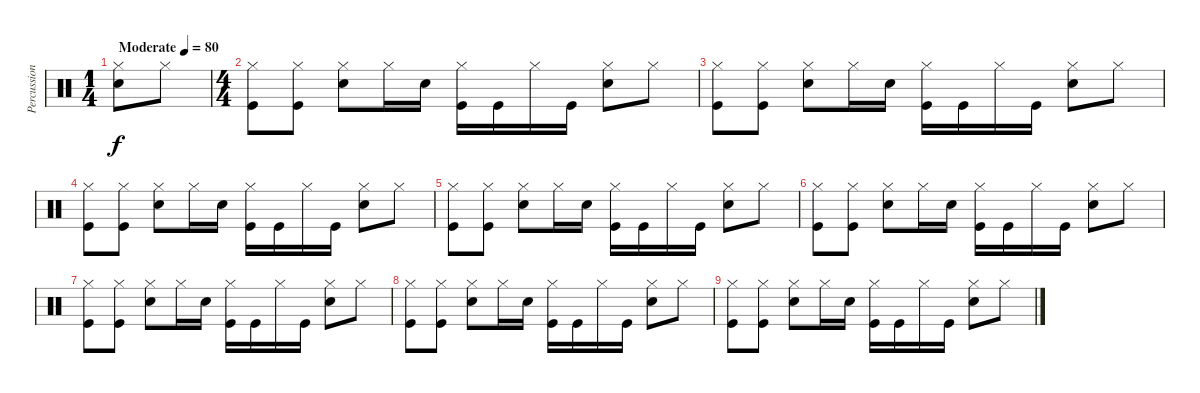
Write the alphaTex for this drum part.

\track ("Percussion" "Percussion") {instrument percussion}
\staff {score}
\articulation defaults
\ts (1 4)
\tempo (80 "Moderate")
\clef neutral
\ks c
("Snare (hit) 2" "Hi-Hat (closed)").8{dy f} "Hi-Hat (closed)".8 |
\ts (4 4)
("Hi-Hat (closed)" "Kick (hit)").8 ("Hi-Hat (closed)" "Kick (hit)").8 ("Snare (hit) 2" "Hi-Hat (closed)").8 "Hi-Hat (closed)".16 "Snare (hit) 2".16 ("Hi-Hat (closed)" "Kick (hit)").16 "Kick (hit)".16 "Hi-Hat (closed)".16 "Kick (hit)".16 ("Snare (hit) 2" "Hi-Hat (closed)").8 "Hi-Hat (closed)".8 |
("Hi-Hat (closed)" "Kick (hit)").8 ("Hi-Hat (closed)" "Kick (hit)").8 ("Snare (hit) 2" "Hi-Hat (closed)").8 "Hi-Hat (closed)".16 "Snare (hit) 2".16 ("Hi-Hat (closed)" "Kick (hit)").16 "Kick (hit)".16 "Hi-Hat (closed)".16 "Kick (hit)".16 ("Snare (hit) 2" "Hi-Hat (closed)").8 "Hi-Hat (closed)".8 |
("Hi-Hat (closed)" "Kick (hit)").8 ("Hi-Hat (closed)" "Kick (hit)").8 ("Snare (hit) 2" "Hi-Hat (closed)").8 "Hi-Hat (closed)".16 "Snare (hit) 2".16 ("Hi-Hat (closed)" "Kick (hit)").16 "Kick (hit)".16 "Hi-Hat (closed)".16 "Kick (hit)".16 ("Snare (hit) 2" "Hi-Hat (closed)").8 "Hi-Hat (closed)".8 |
("Hi-Hat (closed)" "Kick (hit)").8 ("Hi-Hat (closed)" "Kick (hit)").8 ("Snare (hit) 2" "Hi-Hat (closed)").8 "Hi-Hat (closed)".16 "Snare (hit) 2".16 ("Hi-Hat (closed)" "Kick (hit)").16 "Kick (hit)".16 "Hi-Hat (closed)".16 "Kick (hit)".16 ("Snare (hit) 2" "Hi-Hat (closed)").8 "Hi-Hat (closed)".8 |
("Hi-Hat (closed)" "Kick (hit)").8 ("Hi-Hat (closed)" "Kick (hit)").8 ("Snare (hit) 2" "Hi-Hat (closed)").8 "Hi-Hat (closed)".16 "Snare (hit) 2".16 ("Hi-Hat (closed)" "Kick (hit)").16 "Kick (hit)".16 "Hi-Hat (closed)".16 "Kick (hit)".16 ("Snare (hit) 2" "Hi-Hat (closed)").8 "Hi-Hat (closed)".8 |
("Hi-Hat (closed)" "Kick (hit)").8 ("Hi-Hat (closed)" "Kick (hit)").8 ("Snare (hit) 2" "Hi-Hat (closed)").8 "Hi-Hat (closed)".16 "Snare (hit) 2".16 ("Hi-Hat (closed)" "Kick (hit)").16 "Kick (hit)".16 "Hi-Hat (closed)".16 "Kick (hit)".16 ("Snare (hit) 2" "Hi-Hat (closed)").8 "Hi-Hat (closed)".8 |
("Hi-Hat (closed)" "Kick (hit)").8 ("Hi-Hat (closed)" "Kick (hit)").8 ("Snare (hit) 2" "Hi-Hat (closed)").8 "Hi-Hat (closed)".16 "Snare (hit) 2".16 ("Hi-Hat (closed)" "Kick (hit)").16 "Kick (hit)".16 "Hi-Hat (closed)".16 "Kick (hit)".16 ("Snare (hit) 2" "Hi-Hat (closed)").8 "Hi-Hat (closed)".8 |
("Hi-Hat (closed)" "Kick (hit)").8 ("Hi-Hat (closed)" "Kick (hit)").8 ("Snare (hit) 2" "Hi-Hat (closed)").8 "Hi-Hat (closed)".16 "Snare (hit) 2".16 ("Hi-Hat (closed)" "Kick (hit)").16 "Kick (hit)".16 "Hi-Hat (closed)".16 "Kick (hit)".16 ("Snare (hit) 2" "Hi-Hat (closed)").8 "Hi-Hat (closed)".8
